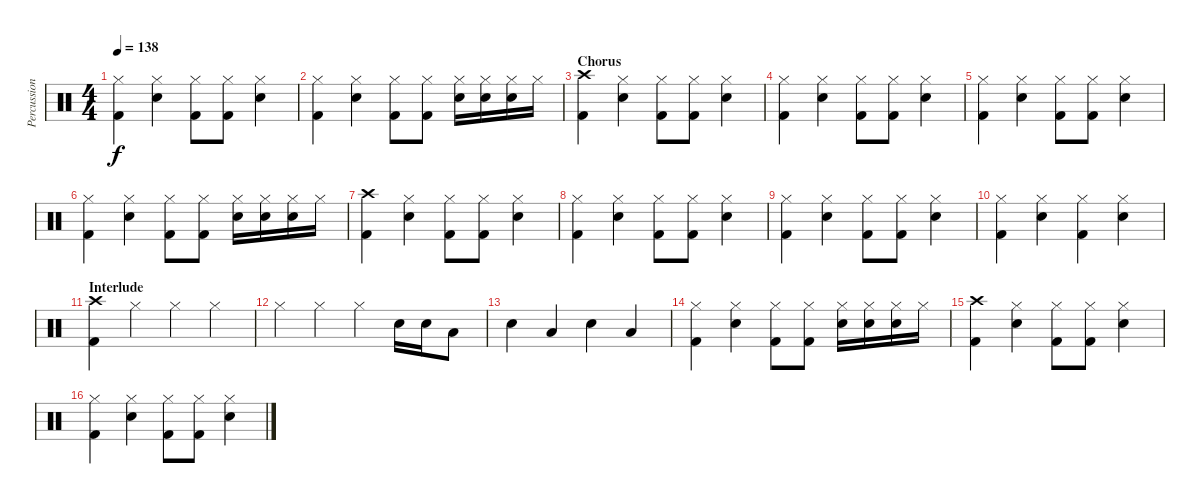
\track ("Percussion" "Percussion") {instrument percussion}
\staff {score}
\articulation defaults
\ts (4 4)
\tempo 138
\clef neutral
\ks c
("Kick (hit) 2" "Hi-Hat (closed)").4{dy f} ("Electric Snare (hit)" "Hi-Hat (closed)").4 ("Kick (hit) 2" "Hi-Hat (closed)").8 ("Kick (hit) 2" "Hi-Hat (closed)").8 ("Electric Snare (hit)" "Hi-Hat (closed)").4 |
("Kick (hit) 2" "Hi-Hat (closed)").4 ("Electric Snare (hit)" "Hi-Hat (closed)").4 ("Kick (hit) 2" "Hi-Hat (closed)").8 ("Kick (hit) 2" "Hi-Hat (closed)").8 ("Electric Snare (hit)" "Hi-Hat (closed)").16 ("Electric Snare (hit)" "Hi-Hat (closed)").16 ("Electric Snare (hit)" "Hi-Hat (closed)").16 "Hi-Hat (closed)".16 |
\section ("" "Chorus")
("Kick (hit) 2" "Crash high (hit)").4 ("Electric Snare (hit)" "Hi-Hat (closed)").4 ("Kick (hit) 2" "Hi-Hat (closed)").8 ("Kick (hit) 2" "Hi-Hat (closed)").8 ("Electric Snare (hit)" "Hi-Hat (closed)").4 |
("Kick (hit) 2" "Hi-Hat (closed)").4 ("Electric Snare (hit)" "Hi-Hat (closed)").4 ("Kick (hit) 2" "Hi-Hat (closed)").8 ("Kick (hit) 2" "Hi-Hat (closed)").8 ("Electric Snare (hit)" "Hi-Hat (closed)").4 |
("Kick (hit) 2" "Hi-Hat (closed)").4 ("Electric Snare (hit)" "Hi-Hat (closed)").4 ("Kick (hit) 2" "Hi-Hat (closed)").8 ("Kick (hit) 2" "Hi-Hat (closed)").8 ("Electric Snare (hit)" "Hi-Hat (closed)").4 |
("Kick (hit) 2" "Hi-Hat (closed)").4 ("Electric Snare (hit)" "Hi-Hat (closed)").4 ("Kick (hit) 2" "Hi-Hat (closed)").8 ("Kick (hit) 2" "Hi-Hat (closed)").8 ("Electric Snare (hit)" "Hi-Hat (closed)").16 ("Electric Snare (hit)" "Hi-Hat (closed)").16 ("Electric Snare (hit)" "Hi-Hat (closed)").16 "Hi-Hat (closed)".16 |
("Kick (hit) 2" "Crash high (hit)").4 ("Electric Snare (hit)" "Hi-Hat (closed)").4 ("Kick (hit) 2" "Hi-Hat (closed)").8 ("Kick (hit) 2" "Hi-Hat (closed)").8 ("Electric Snare (hit)" "Hi-Hat (closed)").4 |
("Kick (hit) 2" "Hi-Hat (closed)").4 ("Electric Snare (hit)" "Hi-Hat (closed)").4 ("Kick (hit) 2" "Hi-Hat (closed)").8 ("Kick (hit) 2" "Hi-Hat (closed)").8 ("Electric Snare (hit)" "Hi-Hat (closed)").4 |
("Kick (hit) 2" "Hi-Hat (closed)").4 ("Electric Snare (hit)" "Hi-Hat (closed)").4 ("Kick (hit) 2" "Hi-Hat (closed)").8 ("Kick (hit) 2" "Hi-Hat (closed)").8 ("Electric Snare (hit)" "Hi-Hat (closed)").4 |
("Kick (hit) 2" "Hi-Hat (closed)").4 ("Electric Snare (hit)" "Hi-Hat (closed)").4 ("Kick (hit) 2" "Hi-Hat (closed)").4 ("Electric Snare (hit)" "Hi-Hat (closed)").4 |
\section ("" "Interlude")
("Kick (hit) 2" "Crash high (hit)").4 "Hi-Hat (closed)".4 "Hi-Hat (closed)".4 "Hi-Hat (closed)".4 |
"Hi-Hat (closed)".4 "Hi-Hat (closed)".4 "Hi-Hat (closed)".4 "Electric Snare (hit)".16 "Electric Snare (hit)".16 "Low Tom (hit)".8 |
"Electric Snare (hit)".4 "Low Tom (hit)".4 "Electric Snare (hit)".4 "Low Tom (hit)".4 |
("Kick (hit) 2" "Hi-Hat (closed)").4 ("Electric Snare (hit)" "Hi-Hat (closed)").4 ("Kick (hit) 2" "Hi-Hat (closed)").8 ("Kick (hit) 2" "Hi-Hat (closed)").8 ("Electric Snare (hit)" "Hi-Hat (closed)").16 ("Electric Snare (hit)" "Hi-Hat (closed)").16 ("Electric Snare (hit)" "Hi-Hat (closed)").16 "Hi-Hat (closed)".16 |
("Kick (hit) 2" "Crash high (hit)").4 ("Electric Snare (hit)" "Hi-Hat (closed)").4 ("Kick (hit) 2" "Hi-Hat (closed)").8 ("Kick (hit) 2" "Hi-Hat (closed)").8 ("Electric Snare (hit)" "Hi-Hat (closed)").4 |
("Kick (hit) 2" "Hi-Hat (closed)").4 ("Electric Snare (hit)" "Hi-Hat (closed)").4 ("Kick (hit) 2" "Hi-Hat (closed)").8 ("Kick (hit) 2" "Hi-Hat (closed)").8 ("Electric Snare (hit)" "Hi-Hat (closed)").4
